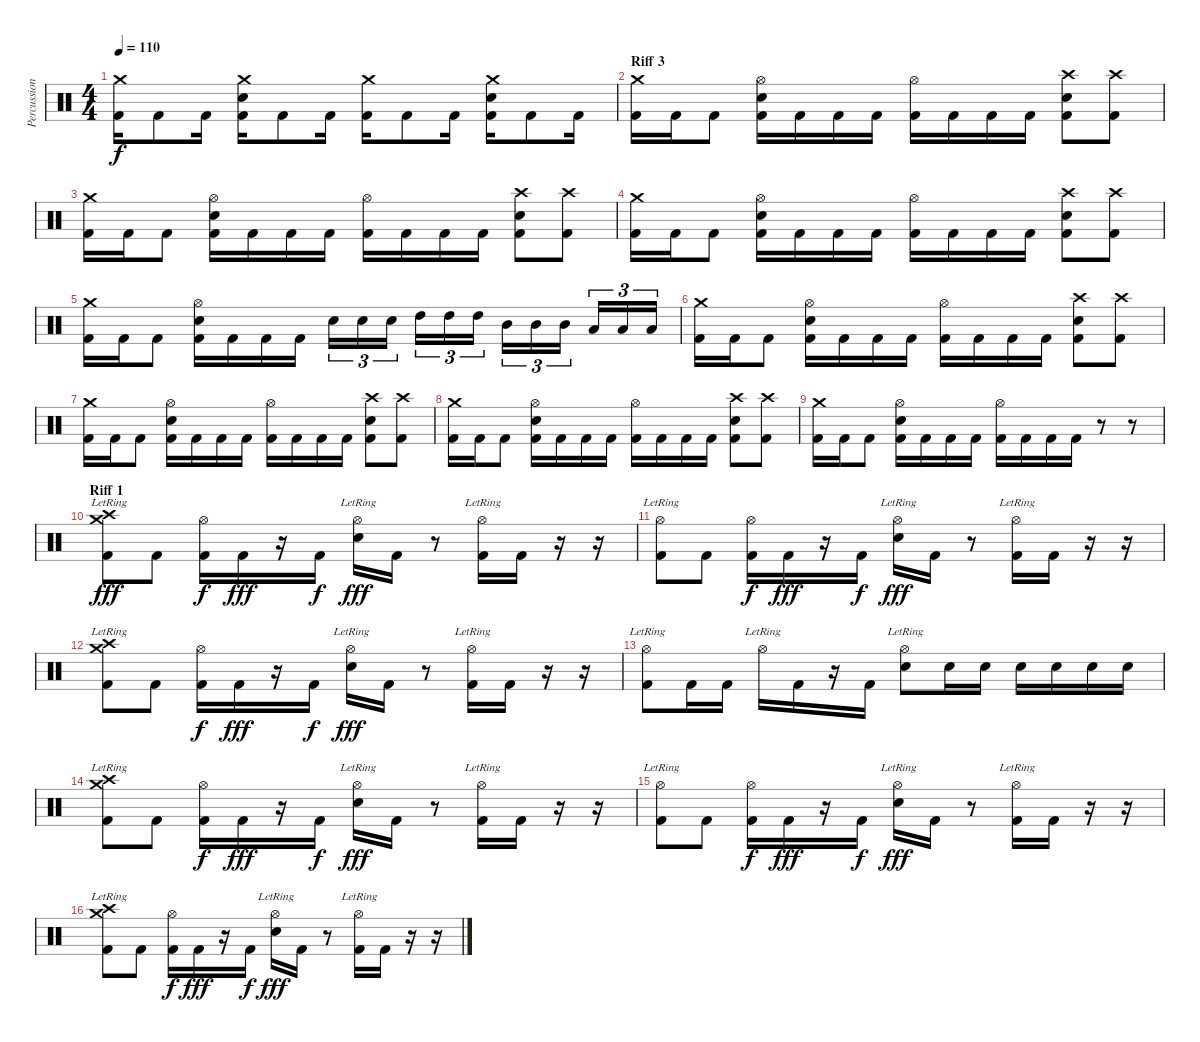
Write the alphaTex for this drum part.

\track ("Percussions" "Percussion") {instrument percussion}
\staff {score}
\articulation defaults
\ts (4 4)
\tempo 110
\clef neutral
\ks c
("Crash medium (hit)" "Kick (hit) 2").16{dy f} "Kick (hit) 2".8 "Kick (hit) 2".16 ("Crash medium (hit)" "Electric Snare (hit)" "Kick (hit) 2").16 "Kick (hit) 2".8 "Kick (hit) 2".16 ("Crash medium (hit)" "Kick (hit) 2").16 "Kick (hit) 2".8 "Kick (hit) 2".16 ("Crash medium (hit)" "Electric Snare (hit)" "Kick (hit) 2").16 "Kick (hit) 2".8 "Kick (hit) 2".16 |
\section ("" "Riff 3")
("Crash medium (hit)" "Kick (hit) 2").16 "Kick (hit) 2".16 "Kick (hit) 2".8 ("Hi-Hat (open)" "Electric Snare (hit)" "Kick (hit) 2").16 "Kick (hit) 2".16 "Kick (hit) 2".16 "Kick (hit) 2".16 ("Hi-Hat (open)" "Kick (hit) 2").16 "Kick (hit) 2".16 "Kick (hit) 2".16 "Kick (hit) 2".16 ("Crash high (hit)" "Electric Snare (hit)" "Kick (hit) 2").8 ("Crash high (hit)" "Kick (hit) 2").8 |
("Crash medium (hit)" "Kick (hit) 2").16 "Kick (hit) 2".16 "Kick (hit) 2".8 ("Hi-Hat (open)" "Electric Snare (hit)" "Kick (hit) 2").16 "Kick (hit) 2".16 "Kick (hit) 2".16 "Kick (hit) 2".16 ("Hi-Hat (open)" "Kick (hit) 2").16 "Kick (hit) 2".16 "Kick (hit) 2".16 "Kick (hit) 2".16 ("Crash high (hit)" "Electric Snare (hit)" "Kick (hit) 2").8 ("Crash high (hit)" "Kick (hit) 2").8 |
("Crash medium (hit)" "Kick (hit) 2").16 "Kick (hit) 2".16 "Kick (hit) 2".8 ("Hi-Hat (open)" "Electric Snare (hit)" "Kick (hit) 2").16 "Kick (hit) 2".16 "Kick (hit) 2".16 "Kick (hit) 2".16 ("Hi-Hat (open)" "Kick (hit) 2").16 "Kick (hit) 2".16 "Kick (hit) 2".16 "Kick (hit) 2".16 ("Crash high (hit)" "Electric Snare (hit)" "Kick (hit) 2").8 ("Crash high (hit)" "Kick (hit) 2").8 |
("Crash medium (hit)" "Kick (hit) 2").16 "Kick (hit) 2".16 "Kick (hit) 2".8 ("Hi-Hat (open)" "Electric Snare (hit)" "Kick (hit) 2").16 "Kick (hit) 2".16 "Kick (hit) 2".16 "Kick (hit) 2".16 "Electric Snare (hit)".16{tu (3 2)} "Electric Snare (hit)".16{tu (3 2)} "Electric Snare (hit)".16{tu (3 2)} "High Tom (hit)".16{tu (3 2)} "High Tom (hit)".16{tu (3 2)} "High Tom (hit)".16{tu (3 2)} "Mid Tom (hit)".16{tu (3 2)} "Mid Tom (hit)".16{tu (3 2)} "Mid Tom (hit)".16{tu (3 2)} "Low Tom (hit)".16{tu (3 2)} "Low Tom (hit)".16{tu (3 2)} "Low Tom (hit)".16{tu (3 2)} |
("Crash medium (hit)" "Kick (hit) 2").16 "Kick (hit) 2".16 "Kick (hit) 2".8 ("Hi-Hat (open)" "Electric Snare (hit)" "Kick (hit) 2").16 "Kick (hit) 2".16 "Kick (hit) 2".16 "Kick (hit) 2".16 ("Hi-Hat (open)" "Kick (hit) 2").16 "Kick (hit) 2".16 "Kick (hit) 2".16 "Kick (hit) 2".16 ("Crash high (hit)" "Electric Snare (hit)" "Kick (hit) 2").8 ("Crash high (hit)" "Kick (hit) 2").8 |
("Crash medium (hit)" "Kick (hit) 2").16 "Kick (hit) 2".16 "Kick (hit) 2".8 ("Hi-Hat (open)" "Electric Snare (hit)" "Kick (hit) 2").16 "Kick (hit) 2".16 "Kick (hit) 2".16 "Kick (hit) 2".16 ("Hi-Hat (open)" "Kick (hit) 2").16 "Kick (hit) 2".16 "Kick (hit) 2".16 "Kick (hit) 2".16 ("Crash high (hit)" "Electric Snare (hit)" "Kick (hit) 2").8 ("Crash high (hit)" "Kick (hit) 2").8 |
("Crash medium (hit)" "Kick (hit) 2").16 "Kick (hit) 2".16 "Kick (hit) 2".8 ("Hi-Hat (open)" "Electric Snare (hit)" "Kick (hit) 2").16 "Kick (hit) 2".16 "Kick (hit) 2".16 "Kick (hit) 2".16 ("Hi-Hat (open)" "Kick (hit) 2").16 "Kick (hit) 2".16 "Kick (hit) 2".16 "Kick (hit) 2".16 ("Crash high (hit)" "Electric Snare (hit)" "Kick (hit) 2").8 ("Crash high (hit)" "Kick (hit) 2").8 |
("Crash medium (hit)" "Kick (hit) 2").16 "Kick (hit) 2".16 "Kick (hit) 2".8 ("Hi-Hat (open)" "Electric Snare (hit)" "Kick (hit) 2").16 "Kick (hit) 2".16 "Kick (hit) 2".16 "Kick (hit) 2".16 ("Hi-Hat (open)" "Kick (hit) 2").16 "Kick (hit) 2".16 "Kick (hit) 2".16 "Kick (hit) 2".16 r.8 r.8 |
\section ("" "Riff 1")
("Crash high (hit)"{lr} "Crash medium (hit)"{lr} "Kick (hit) 2").8{dy fff} "Kick (hit) 2".8 ("Hi-Hat (open)" "Kick (hit) 2").16{dy f} "Kick (hit) 2".16{dy fff} r.16 "Kick (hit) 2".16{dy f} ("Hi-Hat (open)"{lr} "Electric Snare (hit)").16{dy fff} "Kick (hit) 2".16 r.8 ("Hi-Hat (open)"{lr} "Kick (hit) 2").16 "Kick (hit) 2".16 r.16 r.16 |
("Hi-Hat (open)"{lr} "Kick (hit) 2").8 "Kick (hit) 2".8 ("Hi-Hat (open)" "Kick (hit) 2").16{dy f} "Kick (hit) 2".16{dy fff} r.16 "Kick (hit) 2".16{dy f} ("Hi-Hat (open)"{lr} "Electric Snare (hit)").16{dy fff} "Kick (hit) 2".16 r.8 ("Hi-Hat (open)"{lr} "Kick (hit) 2").16 "Kick (hit) 2".16 r.16 r.16 |
("Crash high (hit)"{lr} "Crash medium (hit)"{lr} "Kick (hit) 2").8 "Kick (hit) 2".8 ("Hi-Hat (open)" "Kick (hit) 2").16{dy f} "Kick (hit) 2".16{dy fff} r.16 "Kick (hit) 2".16{dy f} ("Hi-Hat (open)"{lr} "Electric Snare (hit)").16{dy fff} "Kick (hit) 2".16 r.8 ("Hi-Hat (open)"{lr} "Kick (hit) 2").16 "Kick (hit) 2".16 r.16 r.16 |
("Hi-Hat (open)"{lr} "Kick (hit) 2").8 "Kick (hit) 2".16 "Kick (hit) 2".16 "Hi-Hat (open)"{lr}.16 "Kick (hit) 2".16 r.16 "Kick (hit) 2".16 ("Hi-Hat (open)"{lr} "Electric Snare (hit)").8 "Electric Snare (hit)".16 "Electric Snare (hit)".16 "Electric Snare (hit)".16 "Electric Snare (hit)".16 "Electric Snare (hit)".16 "Electric Snare (hit)".16 |
("Crash high (hit)"{lr} "Crash medium (hit)"{lr} "Kick (hit) 2").8 "Kick (hit) 2".8 ("Hi-Hat (open)" "Kick (hit) 2").16{dy f} "Kick (hit) 2".16{dy fff} r.16 "Kick (hit) 2".16{dy f} ("Hi-Hat (open)"{lr} "Electric Snare (hit)").16{dy fff} "Kick (hit) 2".16 r.8 ("Hi-Hat (open)"{lr} "Kick (hit) 2").16 "Kick (hit) 2".16 r.16 r.16 |
("Hi-Hat (open)"{lr} "Kick (hit) 2").8 "Kick (hit) 2".8 ("Hi-Hat (open)" "Kick (hit) 2").16{dy f} "Kick (hit) 2".16{dy fff} r.16 "Kick (hit) 2".16{dy f} ("Hi-Hat (open)"{lr} "Electric Snare (hit)").16{dy fff} "Kick (hit) 2".16 r.8 ("Hi-Hat (open)"{lr} "Kick (hit) 2").16 "Kick (hit) 2".16 r.16 r.16 |
("Crash high (hit)"{lr} "Crash medium (hit)"{lr} "Kick (hit) 2").8 "Kick (hit) 2".8 ("Hi-Hat (open)" "Kick (hit) 2").16{dy f} "Kick (hit) 2".16{dy fff} r.16 "Kick (hit) 2".16{dy f} ("Hi-Hat (open)"{lr} "Electric Snare (hit)").16{dy fff} "Kick (hit) 2".16 r.8 ("Hi-Hat (open)"{lr} "Kick (hit) 2").16 "Kick (hit) 2".16 r.16 r.16
